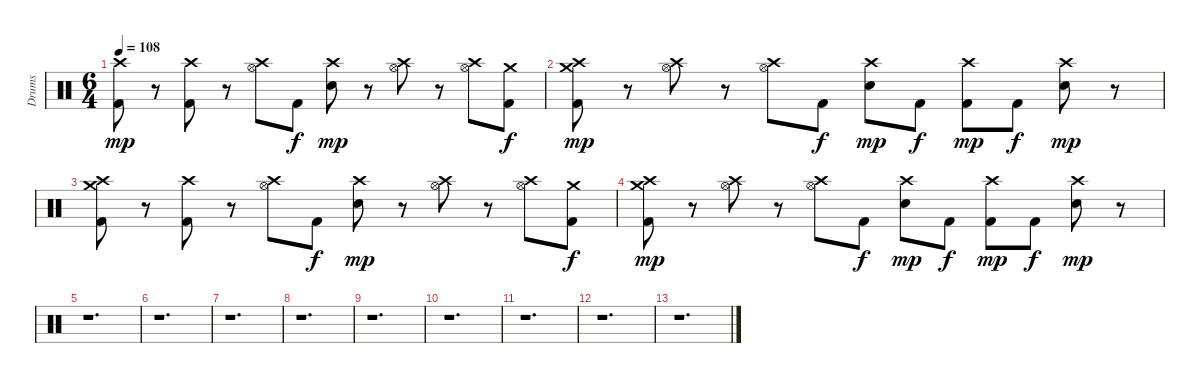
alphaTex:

\track ("Drums" "Drums") {instrument percussion}
\staff {score}
\articulation defaults
\ts (6 4)
\tempo 108
\clef neutral
\ks c
("Crash high (hit)" "Kick (hit) 2").8{dy mp} r.8 ("Crash high (hit)" "Kick (hit) 2").8 r.8 ("Crash high (hit)" "Hi-Hat (open)").8 "Kick (hit) 2".8{dy f} ("Crash high (hit)" "Snare (hit) 2").8{dy mp} r.8 ("Crash high (hit)" "Hi-Hat (open)").8 r.8 ("Crash high (hit)" "Hi-Hat (open)").8 ("Crash medium (hit)" "Kick (hit) 2").8{dy f} |
("Crash high (hit)" "Crash medium (hit)" "Kick (hit) 2").8{dy mp} r.8 ("Crash high (hit)" "Hi-Hat (open)").8 r.8 ("Crash high (hit)" "Hi-Hat (open)").8 "Kick (hit) 2".8{dy f} ("Crash high (hit)" "Snare (hit) 2").8{dy mp} "Kick (hit) 2".8{dy f} ("Crash high (hit)" "Kick (hit) 2").8{dy mp} "Kick (hit) 2".8{dy f} ("Crash high (hit)" "Snare (hit) 2").8{dy mp} r.8 |
("Crash high (hit)" "Crash medium (hit)" "Kick (hit) 2").8 r.8 ("Crash high (hit)" "Kick (hit) 2").8 r.8 ("Crash high (hit)" "Hi-Hat (open)").8 "Kick (hit) 2".8{dy f} ("Crash high (hit)" "Snare (hit) 2").8{dy mp} r.8 ("Crash high (hit)" "Hi-Hat (open)").8 r.8 ("Crash high (hit)" "Hi-Hat (open)").8 ("Crash medium (hit)" "Kick (hit) 2").8{dy f} |
("Crash high (hit)" "Crash medium (hit)" "Kick (hit) 2").8{dy mp} r.8 ("Crash high (hit)" "Hi-Hat (open)").8 r.8 ("Crash high (hit)" "Hi-Hat (open)").8 "Kick (hit) 2".8{dy f} ("Crash high (hit)" "Snare (hit) 2").8{dy mp} "Kick (hit) 2".8{dy f} ("Crash high (hit)" "Kick (hit) 2").8{dy mp} "Kick (hit) 2".8{dy f} ("Crash high (hit)" "Snare (hit) 2").8{dy mp} r.8 |
r.1{d} |
r.1{d} |
r.1{d} |
r.1{d} |
r.1{d} |
r.1{d} |
r.1{d} |
r.1{d} |
r.1{d}
